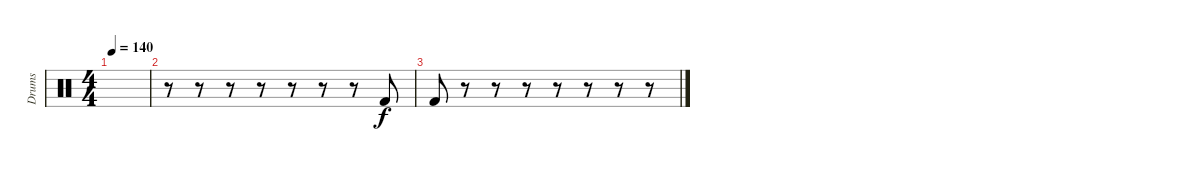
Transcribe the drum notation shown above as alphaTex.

\track ("Drums" "Drums") {instrument percussion}
\staff {score}
\articulation defaults
\ts (4 4)
\tempo 140
\clef neutral
\ks c
|
r.8 r.8 r.8 r.8 r.8 r.8 r.8 "Kick (hit) 2".8 |
"Kick (hit) 2".8 r.8 r.8 r.8 r.8 r.8 r.8 r.8
